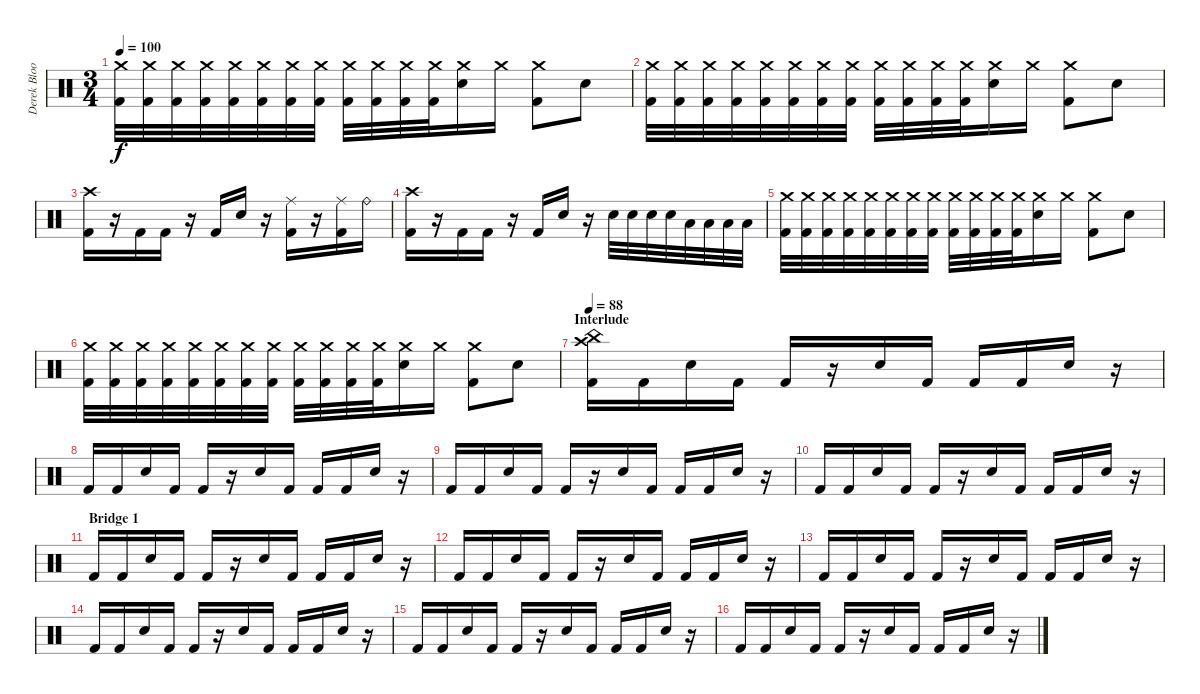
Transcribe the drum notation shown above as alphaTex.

\track ("Derek Bloom (Drums)" "Derek Bloo") {instrument percussion}
\staff {score}
\articulation defaults
\ts (3 4)
\tempo 100
\clef neutral
\ks c
("Crash medium (hit)" "Kick (hit) 2").32{dy f} ("Crash medium (hit)" "Kick (hit) 2").32 ("Crash medium (hit)" "Kick (hit) 2").32 ("Crash medium (hit)" "Kick (hit) 2").32 ("Crash medium (hit)" "Kick (hit) 2").32 ("Crash medium (hit)" "Kick (hit) 2").32 ("Crash medium (hit)" "Kick (hit) 2").32 ("Crash medium (hit)" "Kick (hit) 2").32 ("Crash medium (hit)" "Kick (hit) 2").32 ("Crash medium (hit)" "Kick (hit) 2").32 ("Crash medium (hit)" "Kick (hit) 2").32 ("Crash medium (hit)" "Kick (hit) 2").32 ("Crash medium (hit)" "Electric Snare (hit)").16 "Crash medium (hit)".16 ("Crash medium (hit)" "Kick (hit) 2").8 "Electric Snare (hit)".8 |
("Crash medium (hit)" "Kick (hit) 2").32 ("Crash medium (hit)" "Kick (hit) 2").32 ("Crash medium (hit)" "Kick (hit) 2").32 ("Crash medium (hit)" "Kick (hit) 2").32 ("Crash medium (hit)" "Kick (hit) 2").32 ("Crash medium (hit)" "Kick (hit) 2").32 ("Crash medium (hit)" "Kick (hit) 2").32 ("Crash medium (hit)" "Kick (hit) 2").32 ("Crash medium (hit)" "Kick (hit) 2").32 ("Crash medium (hit)" "Kick (hit) 2").32 ("Crash medium (hit)" "Kick (hit) 2").32 ("Crash medium (hit)" "Kick (hit) 2").32 ("Crash medium (hit)" "Electric Snare (hit)").16 "Crash medium (hit)".16 ("Crash medium (hit)" "Kick (hit) 2").8 "Electric Snare (hit)".8 |
("Crash high (hit)" "Kick (hit) 2").16 r.16 "Kick (hit) 2".16 "Kick (hit) 2".16 r.16 "Kick (hit) 2".16 "Electric Snare (hit)".16 r.16 ("Ride (middle)" "Kick (hit) 2").16 r.16 ("Ride (middle)" "Kick (hit) 2").16 "Ride (bell)".16 |
("Crash high (hit)" "Kick (hit) 2").16 r.16 "Kick (hit) 2".16 "Kick (hit) 2".16 r.16 "Kick (hit) 2".16 "Electric Snare (hit)".16 r.16 "Electric Snare (hit)".32 "Electric Snare (hit)".32 "Electric Snare (hit)".32 "Electric Snare (hit)".32 "Low Tom (hit)".32 "Low Tom (hit)".32 "Low Tom (hit)".32 "Low Tom (hit)".32 |
("Crash medium (hit)" "Kick (hit) 2").32 ("Crash medium (hit)" "Kick (hit) 2").32 ("Crash medium (hit)" "Kick (hit) 2").32 ("Crash medium (hit)" "Kick (hit) 2").32 ("Crash medium (hit)" "Kick (hit) 2").32 ("Crash medium (hit)" "Kick (hit) 2").32 ("Crash medium (hit)" "Kick (hit) 2").32 ("Crash medium (hit)" "Kick (hit) 2").32 ("Crash medium (hit)" "Kick (hit) 2").32 ("Crash medium (hit)" "Kick (hit) 2").32 ("Crash medium (hit)" "Kick (hit) 2").32 ("Crash medium (hit)" "Kick (hit) 2").32 ("Crash medium (hit)" "Electric Snare (hit)").16 "Crash medium (hit)".16 ("Crash medium (hit)" "Kick (hit) 2").8 "Electric Snare (hit)".8 |
("Crash medium (hit)" "Kick (hit) 2").32 ("Crash medium (hit)" "Kick (hit) 2").32 ("Crash medium (hit)" "Kick (hit) 2").32 ("Crash medium (hit)" "Kick (hit) 2").32 ("Crash medium (hit)" "Kick (hit) 2").32 ("Crash medium (hit)" "Kick (hit) 2").32 ("Crash medium (hit)" "Kick (hit) 2").32 ("Crash medium (hit)" "Kick (hit) 2").32 ("Crash medium (hit)" "Kick (hit) 2").32 ("Crash medium (hit)" "Kick (hit) 2").32 ("Crash medium (hit)" "Kick (hit) 2").32 ("Crash medium (hit)" "Kick (hit) 2").32 ("Crash medium (hit)" "Electric Snare (hit)").16 "Crash medium (hit)".16 ("Crash medium (hit)" "Kick (hit) 2").8 "Electric Snare (hit)".8 |
\section ("" "Interlude")
\tempo 88
("China (hit)" "Crash high (hit)" "Kick (hit) 2").16 "Kick (hit) 2".16 "Electric Snare (hit)".16 "Kick (hit) 2".16 "Kick (hit) 2".16 r.16 "Electric Snare (hit)".16 "Kick (hit) 2".16 "Kick (hit) 2".16 "Kick (hit) 2".16 "Electric Snare (hit)".16 r.16 |
"Kick (hit) 2".16 "Kick (hit) 2".16 "Electric Snare (hit)".16 "Kick (hit) 2".16 "Kick (hit) 2".16 r.16 "Electric Snare (hit)".16 "Kick (hit) 2".16 "Kick (hit) 2".16 "Kick (hit) 2".16 "Electric Snare (hit)".16 r.16 |
"Kick (hit) 2".16 "Kick (hit) 2".16 "Electric Snare (hit)".16 "Kick (hit) 2".16 "Kick (hit) 2".16 r.16 "Electric Snare (hit)".16 "Kick (hit) 2".16 "Kick (hit) 2".16 "Kick (hit) 2".16 "Electric Snare (hit)".16 r.16 |
"Kick (hit) 2".16 "Kick (hit) 2".16 "Electric Snare (hit)".16 "Kick (hit) 2".16 "Kick (hit) 2".16 r.16 "Electric Snare (hit)".16 "Kick (hit) 2".16 "Kick (hit) 2".16 "Kick (hit) 2".16 "Electric Snare (hit)".16 r.16 |
\section ("" "Bridge 1")
"Kick (hit) 2".16 "Kick (hit) 2".16 "Electric Snare (hit)".16 "Kick (hit) 2".16 "Kick (hit) 2".16 r.16 "Electric Snare (hit)".16 "Kick (hit) 2".16 "Kick (hit) 2".16 "Kick (hit) 2".16 "Electric Snare (hit)".16 r.16 |
"Kick (hit) 2".16 "Kick (hit) 2".16 "Electric Snare (hit)".16 "Kick (hit) 2".16 "Kick (hit) 2".16 r.16 "Electric Snare (hit)".16 "Kick (hit) 2".16 "Kick (hit) 2".16 "Kick (hit) 2".16 "Electric Snare (hit)".16 r.16 |
"Kick (hit) 2".16 "Kick (hit) 2".16 "Electric Snare (hit)".16 "Kick (hit) 2".16 "Kick (hit) 2".16 r.16 "Electric Snare (hit)".16 "Kick (hit) 2".16 "Kick (hit) 2".16 "Kick (hit) 2".16 "Electric Snare (hit)".16 r.16 |
"Kick (hit) 2".16 "Kick (hit) 2".16 "Electric Snare (hit)".16 "Kick (hit) 2".16 "Kick (hit) 2".16 r.16 "Electric Snare (hit)".16 "Kick (hit) 2".16 "Kick (hit) 2".16 "Kick (hit) 2".16 "Electric Snare (hit)".16 r.16 |
"Kick (hit) 2".16 "Kick (hit) 2".16 "Electric Snare (hit)".16 "Kick (hit) 2".16 "Kick (hit) 2".16 r.16 "Electric Snare (hit)".16 "Kick (hit) 2".16 "Kick (hit) 2".16 "Kick (hit) 2".16 "Electric Snare (hit)".16 r.16 |
"Kick (hit) 2".16 "Kick (hit) 2".16 "Electric Snare (hit)".16 "Kick (hit) 2".16 "Kick (hit) 2".16 r.16 "Electric Snare (hit)".16 "Kick (hit) 2".16 "Kick (hit) 2".16 "Kick (hit) 2".16 "Electric Snare (hit)".16 r.16
